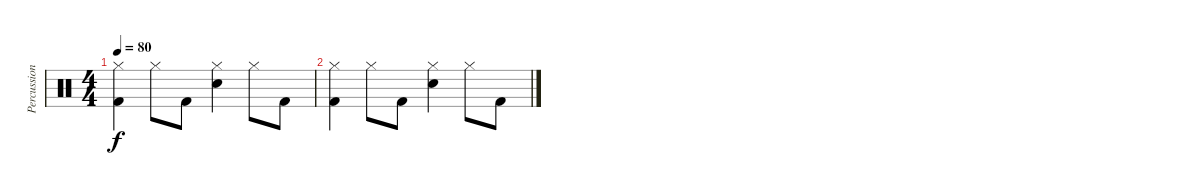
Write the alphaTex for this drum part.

\track ("Percussion" "Percussion") {instrument percussion}
\staff {score}
\articulation defaults
\ts (4 4)
\tempo 80
\clef neutral
\ks c
("Hi-Hat (closed)" "Kick (hit) 2").4{dy f} "Hi-Hat (closed)".8 "Kick (hit) 2".8 ("Hi-Hat (closed)" "Snare (hit) 2").4 "Hi-Hat (closed)".8 "Kick (hit) 2".8 |
("Hi-Hat (closed)" "Kick (hit) 2").4 "Hi-Hat (closed)".8 "Kick (hit) 2".8 ("Hi-Hat (closed)" "Snare (hit) 2").4 "Hi-Hat (closed)".8 "Kick (hit) 2".8
